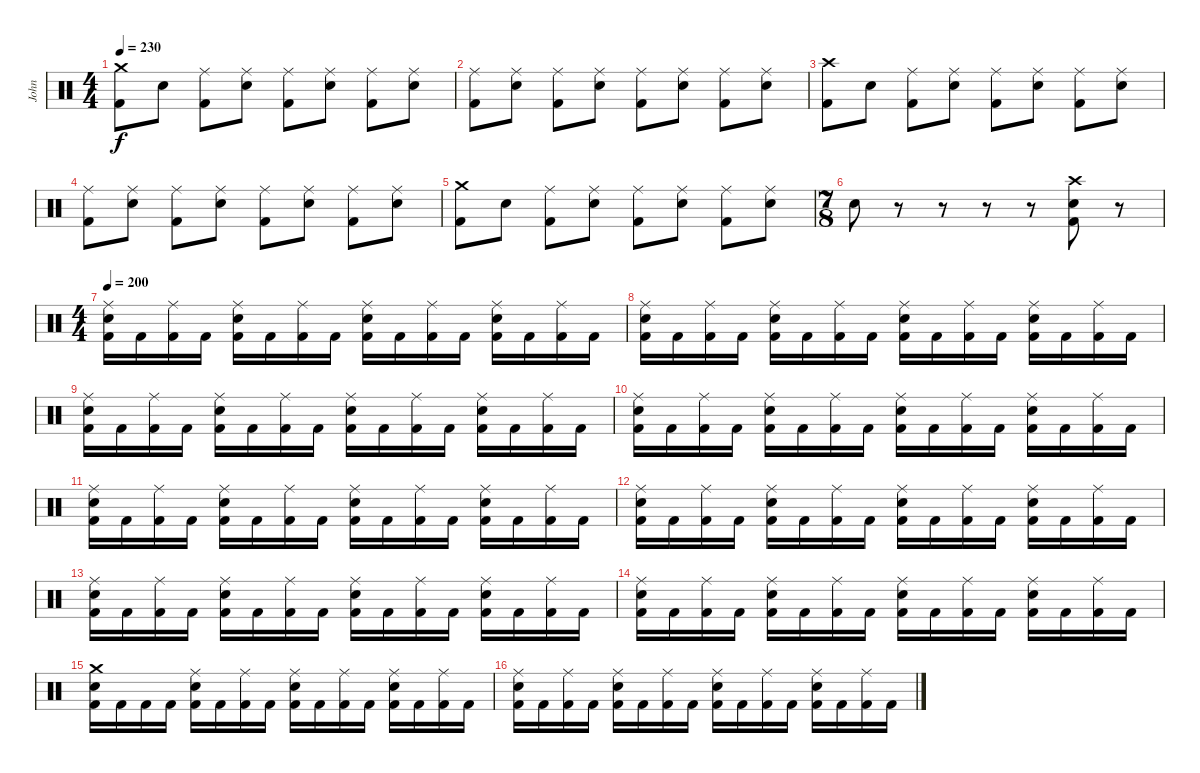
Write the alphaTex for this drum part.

\track ("John" "John") {instrument percussion}
\staff {score}
\articulation defaults
\ts (4 4)
\tempo 230
\clef neutral
\ks c
("Crash medium (hit)" "Kick (hit) 2").8{dy f} "Electric Snare (hit)".8 ("Ride (middle)" "Kick (hit) 2").8 ("Ride (middle)" "Electric Snare (hit)").8 ("Ride (middle)" "Kick (hit) 2").8 ("Ride (middle)" "Electric Snare (hit)").8 ("Ride (middle)" "Kick (hit) 2").8 ("Ride (middle)" "Electric Snare (hit)").8 |
("Ride (middle)" "Kick (hit) 2").8 ("Ride (middle)" "Electric Snare (hit)").8 ("Ride (middle)" "Kick (hit) 2").8 ("Ride (middle)" "Electric Snare (hit)").8 ("Ride (middle)" "Kick (hit) 2").8 ("Ride (middle)" "Electric Snare (hit)").8 ("Ride (middle)" "Kick (hit) 2").8 ("Ride (middle)" "Electric Snare (hit)").8 |
("Crash high (hit)" "Kick (hit) 2").8 "Electric Snare (hit)".8 ("Ride (middle)" "Kick (hit) 2").8 ("Ride (middle)" "Electric Snare (hit)").8 ("Ride (middle)" "Kick (hit) 2").8 ("Ride (middle)" "Electric Snare (hit)").8 ("Ride (middle)" "Kick (hit) 2").8 ("Ride (middle)" "Electric Snare (hit)").8 |
("Ride (middle)" "Kick (hit) 2").8 ("Ride (middle)" "Electric Snare (hit)").8 ("Ride (middle)" "Kick (hit) 2").8 ("Ride (middle)" "Electric Snare (hit)").8 ("Ride (middle)" "Kick (hit) 2").8 ("Ride (middle)" "Electric Snare (hit)").8 ("Ride (middle)" "Kick (hit) 2").8 ("Ride (middle)" "Electric Snare (hit)").8 |
("Crash medium (hit)" "Kick (hit) 2").8 "Electric Snare (hit)".8 ("Ride (middle)" "Kick (hit) 2").8 ("Ride (middle)" "Electric Snare (hit)").8 ("Ride (middle)" "Kick (hit) 2").8 ("Ride (middle)" "Electric Snare (hit)").8 ("Ride (middle)" "Kick (hit) 2").8 ("Ride (middle)" "Electric Snare (hit)").8 |
\ts (7 8)
"Electric Snare (hit)".8 r.8 r.8 r.8 r.8 ("Crash high (hit)" "Electric Snare (hit)" "Kick (hit) 2").8 r.8 |
\ts (4 4)
\tempo 200
("Ride (middle)" "Electric Snare (hit)" "Kick (hit) 2").16 "Kick (hit) 2".16 ("Ride (middle)" "Kick (hit) 2").16 "Kick (hit) 2".16 ("Ride (middle)" "Electric Snare (hit)" "Kick (hit) 2").16 "Kick (hit) 2".16 ("Ride (middle)" "Kick (hit) 2").16 "Kick (hit) 2".16 ("Ride (middle)" "Electric Snare (hit)" "Kick (hit) 2").16 "Kick (hit) 2".16 ("Ride (middle)" "Kick (hit) 2").16 "Kick (hit) 2".16 ("Ride (middle)" "Electric Snare (hit)" "Kick (hit) 2").16 "Kick (hit) 2".16 ("Ride (middle)" "Kick (hit) 2").16 "Kick (hit) 2".16 |
("Ride (middle)" "Electric Snare (hit)" "Kick (hit) 2").16 "Kick (hit) 2".16 ("Ride (middle)" "Kick (hit) 2").16 "Kick (hit) 2".16 ("Ride (middle)" "Electric Snare (hit)" "Kick (hit) 2").16 "Kick (hit) 2".16 ("Ride (middle)" "Kick (hit) 2").16 "Kick (hit) 2".16 ("Ride (middle)" "Electric Snare (hit)" "Kick (hit) 2").16 "Kick (hit) 2".16 ("Ride (middle)" "Kick (hit) 2").16 "Kick (hit) 2".16 ("Ride (middle)" "Electric Snare (hit)" "Kick (hit) 2").16 "Kick (hit) 2".16 ("Ride (middle)" "Kick (hit) 2").16 "Kick (hit) 2".16 |
("Ride (middle)" "Electric Snare (hit)" "Kick (hit) 2").16 "Kick (hit) 2".16 ("Ride (middle)" "Kick (hit) 2").16 "Kick (hit) 2".16 ("Ride (middle)" "Electric Snare (hit)" "Kick (hit) 2").16 "Kick (hit) 2".16 ("Ride (middle)" "Kick (hit) 2").16 "Kick (hit) 2".16 ("Ride (middle)" "Electric Snare (hit)" "Kick (hit) 2").16 "Kick (hit) 2".16 ("Ride (middle)" "Kick (hit) 2").16 "Kick (hit) 2".16 ("Ride (middle)" "Electric Snare (hit)" "Kick (hit) 2").16 "Kick (hit) 2".16 ("Ride (middle)" "Kick (hit) 2").16 "Kick (hit) 2".16 |
("Ride (middle)" "Electric Snare (hit)" "Kick (hit) 2").16 "Kick (hit) 2".16 ("Ride (middle)" "Kick (hit) 2").16 "Kick (hit) 2".16 ("Ride (middle)" "Electric Snare (hit)" "Kick (hit) 2").16 "Kick (hit) 2".16 ("Ride (middle)" "Kick (hit) 2").16 "Kick (hit) 2".16 ("Ride (middle)" "Electric Snare (hit)" "Kick (hit) 2").16 "Kick (hit) 2".16 ("Ride (middle)" "Kick (hit) 2").16 "Kick (hit) 2".16 ("Ride (middle)" "Electric Snare (hit)" "Kick (hit) 2").16 "Kick (hit) 2".16 ("Ride (middle)" "Kick (hit) 2").16 "Kick (hit) 2".16 |
("Ride (middle)" "Electric Snare (hit)" "Kick (hit) 2").16 "Kick (hit) 2".16 ("Ride (middle)" "Kick (hit) 2").16 "Kick (hit) 2".16 ("Ride (middle)" "Electric Snare (hit)" "Kick (hit) 2").16 "Kick (hit) 2".16 ("Ride (middle)" "Kick (hit) 2").16 "Kick (hit) 2".16 ("Ride (middle)" "Electric Snare (hit)" "Kick (hit) 2").16 "Kick (hit) 2".16 ("Ride (middle)" "Kick (hit) 2").16 "Kick (hit) 2".16 ("Ride (middle)" "Electric Snare (hit)" "Kick (hit) 2").16 "Kick (hit) 2".16 ("Ride (middle)" "Kick (hit) 2").16 "Kick (hit) 2".16 |
("Ride (middle)" "Electric Snare (hit)" "Kick (hit) 2").16 "Kick (hit) 2".16 ("Ride (middle)" "Kick (hit) 2").16 "Kick (hit) 2".16 ("Ride (middle)" "Electric Snare (hit)" "Kick (hit) 2").16 "Kick (hit) 2".16 ("Ride (middle)" "Kick (hit) 2").16 "Kick (hit) 2".16 ("Ride (middle)" "Electric Snare (hit)" "Kick (hit) 2").16 "Kick (hit) 2".16 ("Ride (middle)" "Kick (hit) 2").16 "Kick (hit) 2".16 ("Ride (middle)" "Electric Snare (hit)" "Kick (hit) 2").16 "Kick (hit) 2".16 ("Ride (middle)" "Kick (hit) 2").16 "Kick (hit) 2".16 |
("Ride (middle)" "Electric Snare (hit)" "Kick (hit) 2").16 "Kick (hit) 2".16 ("Ride (middle)" "Kick (hit) 2").16 "Kick (hit) 2".16 ("Ride (middle)" "Electric Snare (hit)" "Kick (hit) 2").16 "Kick (hit) 2".16 ("Ride (middle)" "Kick (hit) 2").16 "Kick (hit) 2".16 ("Ride (middle)" "Electric Snare (hit)" "Kick (hit) 2").16 "Kick (hit) 2".16 ("Ride (middle)" "Kick (hit) 2").16 "Kick (hit) 2".16 ("Ride (middle)" "Electric Snare (hit)" "Kick (hit) 2").16 "Kick (hit) 2".16 ("Ride (middle)" "Kick (hit) 2").16 "Kick (hit) 2".16 |
("Ride (middle)" "Electric Snare (hit)" "Kick (hit) 2").16 "Kick (hit) 2".16 ("Ride (middle)" "Kick (hit) 2").16 "Kick (hit) 2".16 ("Ride (middle)" "Electric Snare (hit)" "Kick (hit) 2").16 "Kick (hit) 2".16 ("Ride (middle)" "Kick (hit) 2").16 "Kick (hit) 2".16 ("Ride (middle)" "Electric Snare (hit)" "Kick (hit) 2").16 "Kick (hit) 2".16 ("Ride (middle)" "Kick (hit) 2").16 "Kick (hit) 2".16 ("Ride (middle)" "Electric Snare (hit)" "Kick (hit) 2").16 "Kick (hit) 2".16 ("Ride (middle)" "Kick (hit) 2").16 "Kick (hit) 2".16 |
("Crash medium (hit)" "Electric Snare (hit)" "Kick (hit) 2").16 "Kick (hit) 2".16 "Kick (hit) 2".16 "Kick (hit) 2".16 ("Ride (middle)" "Electric Snare (hit)" "Kick (hit) 2").16 "Kick (hit) 2".16 ("Ride (middle)" "Kick (hit) 2").16 "Kick (hit) 2".16 ("Ride (middle)" "Electric Snare (hit)" "Kick (hit) 2").16 "Kick (hit) 2".16 ("Ride (middle)" "Kick (hit) 2").16 "Kick (hit) 2".16 ("Ride (middle)" "Electric Snare (hit)" "Kick (hit) 2").16 "Kick (hit) 2".16 ("Ride (middle)" "Kick (hit) 2").16 "Kick (hit) 2".16 |
("Ride (middle)" "Electric Snare (hit)" "Kick (hit) 2").16 "Kick (hit) 2".16 ("Ride (middle)" "Kick (hit) 2").16 "Kick (hit) 2".16 ("Ride (middle)" "Electric Snare (hit)" "Kick (hit) 2").16 "Kick (hit) 2".16 ("Ride (middle)" "Kick (hit) 2").16 "Kick (hit) 2".16 ("Ride (middle)" "Electric Snare (hit)" "Kick (hit) 2").16 "Kick (hit) 2".16 ("Ride (middle)" "Kick (hit) 2").16 "Kick (hit) 2".16 ("Ride (middle)" "Electric Snare (hit)" "Kick (hit) 2").16 "Kick (hit) 2".16 ("Ride (middle)" "Kick (hit) 2").16 "Kick (hit) 2".16
